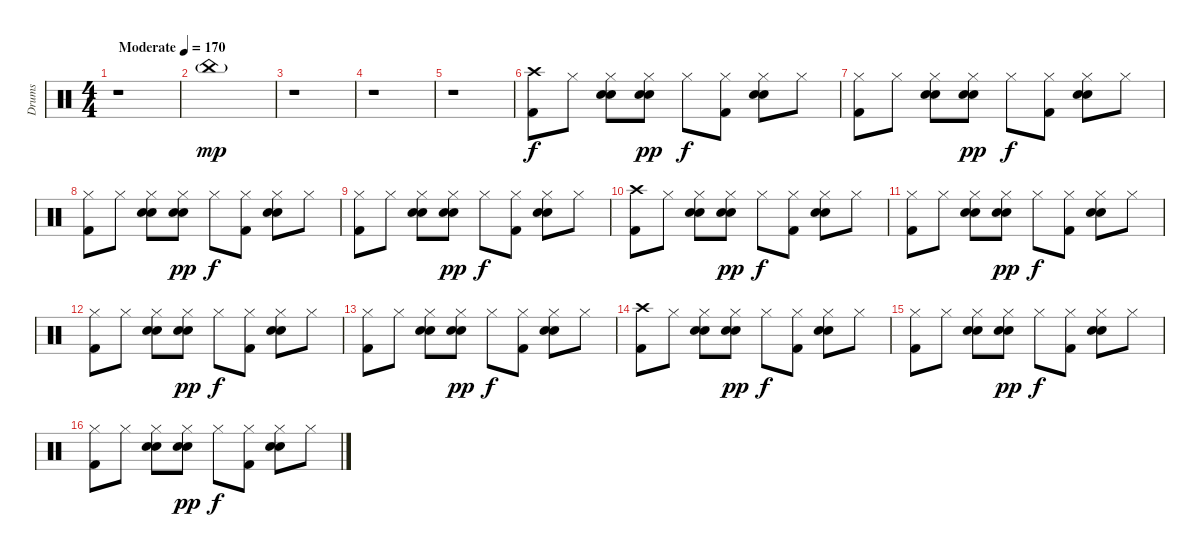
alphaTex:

\track ("Drums" "Drums") {instrument percussion}
\staff {score}
\articulation defaults
\ts (4 4)
\tempo (170 "Moderate")
\clef neutral
\ks c
r.1{dy mp} |
"China (hit)"{g}.1 |
r.1 |
r.1 |
r.1 |
("Crash high (hit)" "Kick (hit) 2").8{dy f} "Hi-Hat (closed)".8 ("Hi-Hat (closed)" "Electric Snare (hit)" "Snare (hit)").8 ("Hi-Hat (closed)" "Electric Snare (hit)" "Snare (hit)").8{dy pp} "Hi-Hat (closed)".8{dy f} ("Hi-Hat (closed)" "Kick (hit) 2").8 ("Hi-Hat (closed)" "Electric Snare (hit)" "Snare (hit)").8 "Hi-Hat (closed)".8 |
("Hi-Hat (closed)" "Kick (hit) 2").8 "Hi-Hat (closed)".8 ("Hi-Hat (closed)" "Electric Snare (hit)" "Snare (hit)").8 ("Hi-Hat (closed)" "Electric Snare (hit)" "Snare (hit)").8{dy pp} "Hi-Hat (closed)".8{dy f} ("Hi-Hat (closed)" "Kick (hit) 2").8 ("Hi-Hat (closed)" "Electric Snare (hit)" "Snare (hit)").8 "Hi-Hat (closed)".8 |
("Hi-Hat (closed)" "Kick (hit) 2").8 "Hi-Hat (closed)".8 ("Hi-Hat (closed)" "Electric Snare (hit)" "Snare (hit)").8 ("Hi-Hat (closed)" "Electric Snare (hit)" "Snare (hit)").8{dy pp} "Hi-Hat (closed)".8{dy f} ("Hi-Hat (closed)" "Kick (hit) 2").8 ("Hi-Hat (closed)" "Electric Snare (hit)" "Snare (hit)").8 "Hi-Hat (closed)".8 |
("Hi-Hat (closed)" "Kick (hit) 2").8 "Hi-Hat (closed)".8 ("Hi-Hat (closed)" "Electric Snare (hit)" "Snare (hit)").8 ("Hi-Hat (closed)" "Electric Snare (hit)" "Snare (hit)").8{dy pp} "Hi-Hat (closed)".8{dy f} ("Hi-Hat (closed)" "Kick (hit) 2").8 ("Hi-Hat (closed)" "Electric Snare (hit)" "Snare (hit)").8 "Hi-Hat (closed)".8 |
("Crash high (hit)" "Kick (hit) 2").8 "Hi-Hat (closed)".8 ("Hi-Hat (closed)" "Electric Snare (hit)" "Snare (hit)").8 ("Hi-Hat (closed)" "Electric Snare (hit)" "Snare (hit)").8{dy pp} "Hi-Hat (closed)".8{dy f} ("Hi-Hat (closed)" "Kick (hit) 2").8 ("Hi-Hat (closed)" "Electric Snare (hit)" "Snare (hit)").8 "Hi-Hat (closed)".8 |
("Hi-Hat (closed)" "Kick (hit) 2").8 "Hi-Hat (closed)".8 ("Hi-Hat (closed)" "Electric Snare (hit)" "Snare (hit)").8 ("Hi-Hat (closed)" "Electric Snare (hit)" "Snare (hit)").8{dy pp} "Hi-Hat (closed)".8{dy f} ("Hi-Hat (closed)" "Kick (hit) 2").8 ("Hi-Hat (closed)" "Electric Snare (hit)" "Snare (hit)").8 "Hi-Hat (closed)".8 |
("Hi-Hat (closed)" "Kick (hit) 2").8 "Hi-Hat (closed)".8 ("Hi-Hat (closed)" "Electric Snare (hit)" "Snare (hit)").8 ("Hi-Hat (closed)" "Electric Snare (hit)" "Snare (hit)").8{dy pp} "Hi-Hat (closed)".8{dy f} ("Hi-Hat (closed)" "Kick (hit) 2").8 ("Hi-Hat (closed)" "Electric Snare (hit)" "Snare (hit)").8 "Hi-Hat (closed)".8 |
("Hi-Hat (closed)" "Kick (hit) 2").8 "Hi-Hat (closed)".8 ("Hi-Hat (closed)" "Electric Snare (hit)" "Snare (hit)").8 ("Hi-Hat (closed)" "Electric Snare (hit)" "Snare (hit)").8{dy pp} "Hi-Hat (closed)".8{dy f} ("Hi-Hat (closed)" "Kick (hit) 2").8 ("Hi-Hat (closed)" "Electric Snare (hit)" "Snare (hit)").8 "Hi-Hat (closed)".8 |
("Crash high (hit)" "Kick (hit) 2").8 "Hi-Hat (closed)".8 ("Hi-Hat (closed)" "Electric Snare (hit)" "Snare (hit)").8 ("Hi-Hat (closed)" "Electric Snare (hit)" "Snare (hit)").8{dy pp} "Hi-Hat (closed)".8{dy f} ("Hi-Hat (closed)" "Kick (hit) 2").8 ("Hi-Hat (closed)" "Electric Snare (hit)" "Snare (hit)").8 "Hi-Hat (closed)".8 |
("Hi-Hat (closed)" "Kick (hit) 2").8 "Hi-Hat (closed)".8 ("Hi-Hat (closed)" "Electric Snare (hit)" "Snare (hit)").8 ("Hi-Hat (closed)" "Electric Snare (hit)" "Snare (hit)").8{dy pp} "Hi-Hat (closed)".8{dy f} ("Hi-Hat (closed)" "Kick (hit) 2").8 ("Hi-Hat (closed)" "Electric Snare (hit)" "Snare (hit)").8 "Hi-Hat (closed)".8 |
("Hi-Hat (closed)" "Kick (hit) 2").8 "Hi-Hat (closed)".8 ("Hi-Hat (closed)" "Electric Snare (hit)" "Snare (hit)").8 ("Hi-Hat (closed)" "Electric Snare (hit)" "Snare (hit)").8{dy pp} "Hi-Hat (closed)".8{dy f} ("Hi-Hat (closed)" "Kick (hit) 2").8 ("Hi-Hat (closed)" "Electric Snare (hit)" "Snare (hit)").8 "Hi-Hat (closed)".8
